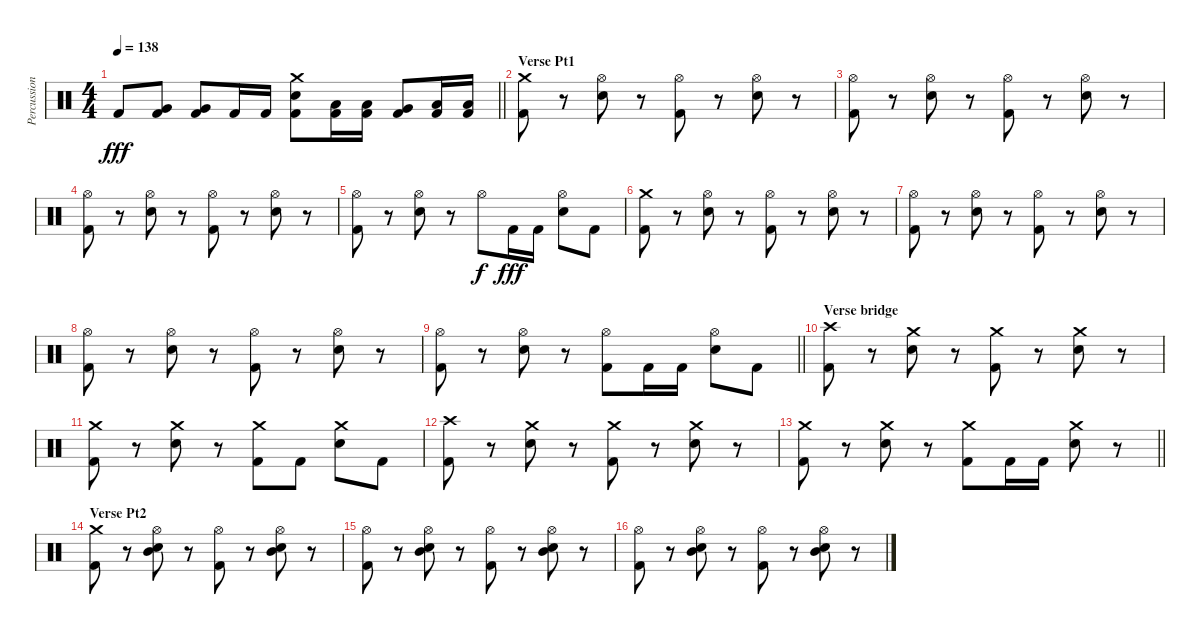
\track ("Percussion" "Percussion") {instrument percussion}
\staff {score}
\articulation defaults
\ts (4 4)
\tempo 138
\clef neutral
\barLineRight lightlight
\ks c "Kick (hit) 2".8{dy fff}
("Kick (hit) 2" "Very Low Tom (hit)").8 ("Kick (hit) 2" "Very Low Tom (hit)").8 "Kick (hit) 2".16 "Kick (hit) 2".16 ("Kick (hit) 2" "Snare (hit) 2" "Crash medium (hit)").8 ("Kick (hit) 2" "Low Tom (hit)").16 ("Kick (hit) 2" "Low Tom (hit)").16 ("Kick (hit) 2" "Very Low Tom (hit)").8 ("Kick (hit) 2" "Low Tom (hit)").16 ("Kick (hit) 2" "Low Tom (hit)").16 |
\section ("" "Verse Pt1")
("Kick (hit) 2" "Crash medium (hit)").8 r.8 ("Snare (hit) 2" "Hi-Hat (open)").8 r.8 ("Kick (hit) 2" "Hi-Hat (open)").8 r.8 ("Snare (hit) 2" "Hi-Hat (open)").8 r.8 |
("Kick (hit) 2" "Hi-Hat (open)").8 r.8 ("Snare (hit) 2" "Hi-Hat (open)").8 r.8 ("Kick (hit) 2" "Hi-Hat (open)").8 r.8 ("Snare (hit) 2" "Hi-Hat (open)").8 r.8 |
("Kick (hit) 2" "Hi-Hat (open)").8 r.8 ("Snare (hit) 2" "Hi-Hat (open)").8 r.8 ("Kick (hit) 2" "Hi-Hat (open)").8 r.8 ("Snare (hit) 2" "Hi-Hat (open)").8 r.8 |
("Kick (hit) 2" "Hi-Hat (open)").8 r.8 ("Snare (hit) 2" "Hi-Hat (open)").8 r.8 "Hi-Hat (open)".8{dy f} "Kick (hit) 2".16{dy fff} "Kick (hit) 2".16 ("Snare (hit) 2" "Hi-Hat (open)").8 "Kick (hit) 2".8 |
("Kick (hit) 2" "Crash medium (hit)").8 r.8 ("Snare (hit) 2" "Hi-Hat (open)").8 r.8 ("Kick (hit) 2" "Hi-Hat (open)").8 r.8 ("Snare (hit) 2" "Hi-Hat (open)").8 r.8 |
("Kick (hit) 2" "Hi-Hat (open)").8 r.8 ("Snare (hit) 2" "Hi-Hat (open)").8 r.8 ("Kick (hit) 2" "Hi-Hat (open)").8 r.8 ("Snare (hit) 2" "Hi-Hat (open)").8 r.8 |
("Kick (hit) 2" "Hi-Hat (open)").8 r.8 ("Snare (hit) 2" "Hi-Hat (open)").8 r.8 ("Kick (hit) 2" "Hi-Hat (open)").8 r.8 ("Snare (hit) 2" "Hi-Hat (open)").8 r.8 |
\barLineRight lightlight
("Kick (hit) 2" "Hi-Hat (open)").8 r.8 ("Snare (hit) 2" "Hi-Hat (open)").8 r.8 ("Kick (hit) 2" "Hi-Hat (open)").8 "Kick (hit) 2".16 "Kick (hit) 2".16 ("Snare (hit) 2" "Hi-Hat (open)").8 "Kick (hit) 2".8 |
\section ("" "Verse bridge")
("Kick (hit) 2" "Crash high (hit)").8 r.8 ("Snare (hit) 2" "Crash medium (hit)").8 r.8 ("Kick (hit) 2" "Crash medium (hit)").8 r.8 ("Snare (hit) 2" "Crash medium (hit)").8 r.8 |
("Kick (hit) 2" "Crash medium (hit)").8 r.8 ("Snare (hit) 2" "Crash medium (hit)").8 r.8 ("Kick (hit) 2" "Crash medium (hit)").8 "Kick (hit) 2".8 ("Snare (hit) 2" "Crash medium (hit)").8 "Kick (hit) 2".8 |
("Kick (hit) 2" "Crash high (hit)").8 r.8 ("Snare (hit) 2" "Crash medium (hit)").8 r.8 ("Kick (hit) 2" "Crash medium (hit)").8 r.8 ("Snare (hit) 2" "Crash medium (hit)").8 r.8 |
\barLineRight lightlight
("Kick (hit) 2" "Crash medium (hit)").8 r.8 ("Snare (hit) 2" "Crash medium (hit)").8 r.8 ("Kick (hit) 2" "Crash medium (hit)").8 "Kick (hit) 2".16 "Kick (hit) 2".16 ("Snare (hit) 2" "Crash medium (hit)").8 r.8 |
\section ("" "Verse Pt2")
("Kick (hit) 2" "Crash medium (hit)").8 r.8 ("Snare (hit) 2" "Mid Tom (hit)" "Hi-Hat (open)").8 r.8 ("Kick (hit) 2" "Hi-Hat (open)").8 r.8 ("Snare (hit) 2" "Mid Tom (hit)" "Hi-Hat (open)").8 r.8 |
("Kick (hit) 2" "Hi-Hat (open)").8 r.8 ("Snare (hit) 2" "Mid Tom (hit)" "Hi-Hat (open)").8 r.8 ("Kick (hit) 2" "Hi-Hat (open)").8 r.8 ("Snare (hit) 2" "Mid Tom (hit)" "Hi-Hat (open)").8 r.8 |
("Kick (hit) 2" "Hi-Hat (open)").8 r.8 ("Snare (hit) 2" "Mid Tom (hit)" "Hi-Hat (open)").8 r.8 ("Kick (hit) 2" "Hi-Hat (open)").8 r.8 ("Snare (hit) 2" "Mid Tom (hit)" "Hi-Hat (open)").8 r.8
